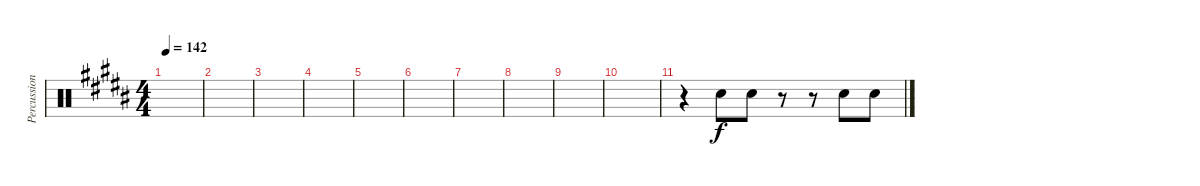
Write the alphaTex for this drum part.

\track ("Percussion" "Percussion") {instrument percussion}
\staff {score}
\articulation defaults
\ts (4 4)
\tempo 142
\clef neutral
\ks b
|
|
|
|
|
|
|
|
|
|
r.4 "Hand Clap (hit)".8 "Hand Clap (hit)".8 r.8 r.8 "Hand Clap (hit)".8 "Hand Clap (hit)".8
